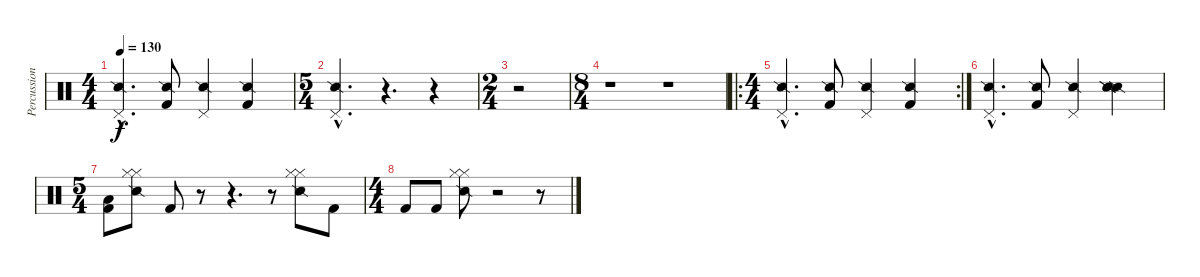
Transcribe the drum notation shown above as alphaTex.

\track ("Percussions" "Percussion") {instrument percussion}
\staff {score}
\articulation defaults
\ts (4 4)
\tempo 130
\clef neutral
\ks c
("Pedal Hi-Hat (hit)"{hac} "Snare (side stick) 2"{hac}).4{d dy f} ("Kick (hit) 2" "Snare (side stick) 2").8 ("Pedal Hi-Hat (hit)" "Snare (side stick) 2").4 ("Kick (hit) 2" "Snare (side stick) 2").4 |
\ts (5 4)
("Pedal Hi-Hat (hit)"{hac} "Snare (side stick) 2"{hac}).4{d} r.4{d} r.4 |
\ts (2 4)
r.2 |
\ts (8 4)
r.1 r.1 |
\ro
\rc 2
\ts (4 4)
("Pedal Hi-Hat (hit)"{hac} "Snare (side stick) 2"{hac}).4{d} ("Kick (hit) 2" "Snare (side stick) 2").8 ("Pedal Hi-Hat (hit)" "Snare (side stick) 2").4 ("Kick (hit) 2" "Snare (side stick) 2").4 |
("Pedal Hi-Hat (hit)"{hac} "Snare (side stick) 2"{hac}).4{d} ("Kick (hit) 2" "Snare (side stick) 2").8 ("Pedal Hi-Hat (hit)" "Snare (side stick) 2").4 ("Snare (side stick) 2" "Snare (side stick) 2" "Snare (side stick) 2").4 |
\ts (5 4)
("Kick (hit) 2" "Low Floor Tom (hit)").8 ("Snare (side stick) 2" "Hi-Hat (closed)" "Hi-Hat (closed)").8 "Kick (hit) 2".8 r.8 r.4{d} r.8 ("Snare (side stick) 2" "Hi-Hat (closed)" "Hi-Hat (closed)").8 "Kick (hit) 2".8 |
\ts (4 4)
"Kick (hit) 2".8 "Kick (hit) 2".8 ("Snare (side stick) 2" "Hi-Hat (closed)" "Hi-Hat (closed)").8 r.2 r.8
